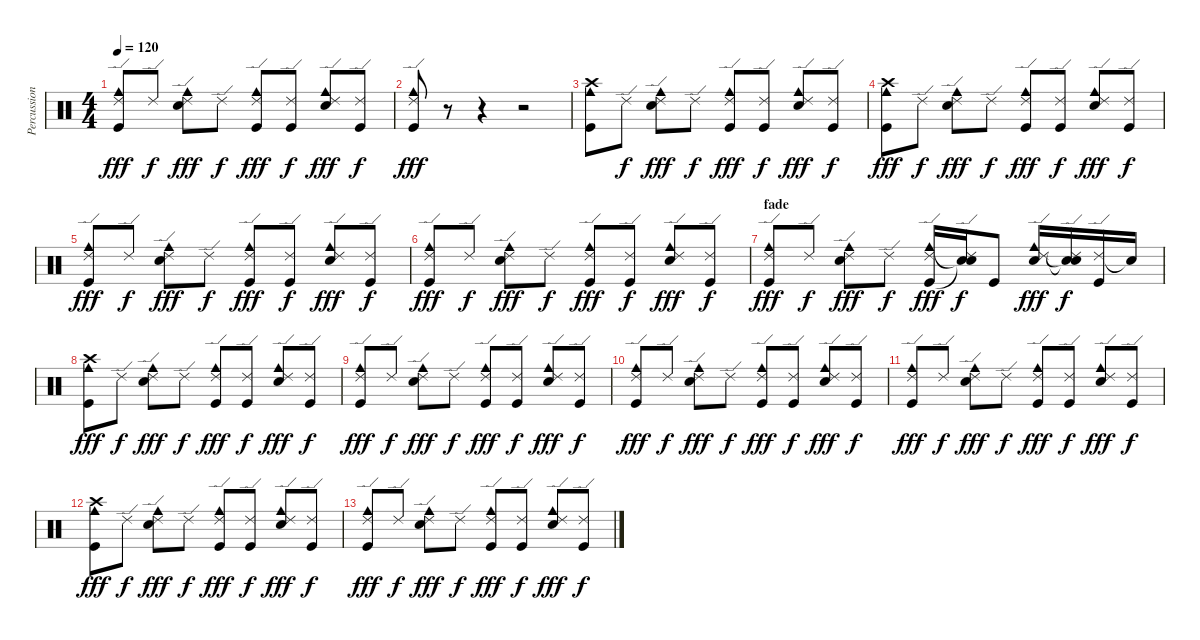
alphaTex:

\track ("Percussion" "Percussion") {instrument percussion}
\staff {score}
\articulation defaults
\ts (4 4)
\tempo 120
\clef neutral
\ks c
("Ride (edge) 2" "Cowbell medium (hit)" "Kick (hit)").8{dy fff} "Ride (edge) 2".8{dy f} ("Ride (edge) 2" "Cowbell medium (hit)" "Snare (hit) 2").8{dy fff} "Ride (edge) 2".8{dy f} ("Ride (edge) 2" "Cowbell medium (hit)" "Kick (hit)").8{dy fff} ("Ride (edge) 2" "Kick (hit)").8{dy f} ("Ride (edge) 2" "Cowbell medium (hit)" "Snare (hit) 2").8{dy fff} ("Ride (edge) 2" "Kick (hit)").8{dy f} |
("Ride (edge) 2" "Cowbell medium (hit)" "Kick (hit)").8{dy fff} r.8 r.4 r.2 |
("Crash high (hit)" "Cowbell medium (hit)" "Kick (hit)").8 "Ride (edge) 2".8{dy f} ("Ride (edge) 2" "Cowbell medium (hit)" "Snare (hit) 2").8{dy fff} "Ride (edge) 2".8{dy f} ("Ride (edge) 2" "Cowbell medium (hit)" "Kick (hit)").8{dy fff} ("Ride (edge) 2" "Kick (hit)").8{dy f} ("Ride (edge) 2" "Cowbell medium (hit)" "Snare (hit) 2").8{dy fff} ("Ride (edge) 2" "Kick (hit)").8{dy f} |
("Crash high (hit)" "Cowbell medium (hit)" "Kick (hit)").8{dy fff} "Ride (edge) 2".8{dy f} ("Ride (edge) 2" "Cowbell medium (hit)" "Snare (hit) 2").8{dy fff} "Ride (edge) 2".8{dy f} ("Ride (edge) 2" "Cowbell medium (hit)" "Kick (hit)").8{dy fff} ("Ride (edge) 2" "Kick (hit)").8{dy f} ("Ride (edge) 2" "Cowbell medium (hit)" "Snare (hit) 2").8{dy fff} ("Ride (edge) 2" "Kick (hit)").8{dy f} |
("Ride (edge) 2" "Cowbell medium (hit)" "Kick (hit)").8{dy fff} "Ride (edge) 2".8{dy f} ("Ride (edge) 2" "Cowbell medium (hit)" "Snare (hit) 2").8{dy fff} "Ride (edge) 2".8{dy f} ("Ride (edge) 2" "Cowbell medium (hit)" "Kick (hit)").8{dy fff} ("Ride (edge) 2" "Kick (hit)").8{dy f} ("Ride (edge) 2" "Cowbell medium (hit)" "Snare (hit) 2").8{dy fff} ("Ride (edge) 2" "Kick (hit)").8{dy f} |
("Ride (edge) 2" "Cowbell medium (hit)" "Kick (hit)").8{dy fff} "Ride (edge) 2".8{dy f} ("Ride (edge) 2" "Cowbell medium (hit)" "Snare (hit) 2").8{dy fff} "Ride (edge) 2".8{dy f} ("Ride (edge) 2" "Cowbell medium (hit)" "Kick (hit)").8{dy fff} ("Ride (edge) 2" "Kick (hit)").8{dy f} ("Ride (edge) 2" "Cowbell medium (hit)" "Snare (hit) 2").8{dy fff} ("Ride (edge) 2" "Kick (hit)").8{dy f} |
\section ("" "fade")
("Ride (edge) 2" "Cowbell medium (hit)" "Kick (hit)").8{dy fff volume 11} "Ride (edge) 2".8{dy f} ("Ride (edge) 2" "Cowbell medium (hit)" "Snare (hit) 2").8{dy fff} "Ride (edge) 2".8{dy f} ("Ride (edge) 2" "Cowbell medium (hit)" "Kick (hit)").16{dy fff} ("Ride (edge) 2" "Snare (hit)"{t} "Snare (hit)"{t}).16{dy f} "Kick (hit)".8 ("Ride (edge) 2" "Cowbell medium (hit)" "Snare (hit) 2").16{dy fff} ("Ride (edge) 2" "Snare (hit)"{t} "Snare (hit)"{t}).16{dy f} ("Ride (edge) 2" "Kick (hit)").16 "Snare (hit)"{t}.16 |
("Crash high (hit)" "Cowbell medium (hit)" "Kick (hit)").8{dy fff volume 9} "Ride (edge) 2".8{dy f} ("Ride (edge) 2" "Cowbell medium (hit)" "Snare (hit) 2").8{dy fff} "Ride (edge) 2".8{dy f} ("Ride (edge) 2" "Cowbell medium (hit)" "Kick (hit)").8{dy fff} ("Ride (edge) 2" "Kick (hit)").8{dy f} ("Ride (edge) 2" "Cowbell medium (hit)" "Snare (hit) 2").8{dy fff} ("Ride (edge) 2" "Kick (hit)").8{dy f} |
("Ride (edge) 2" "Cowbell medium (hit)" "Kick (hit)").8{dy fff volume 7} "Ride (edge) 2".8{dy f} ("Ride (edge) 2" "Cowbell medium (hit)" "Snare (hit) 2").8{dy fff} "Ride (edge) 2".8{dy f} ("Ride (edge) 2" "Cowbell medium (hit)" "Kick (hit)").8{dy fff} ("Ride (edge) 2" "Kick (hit)").8{dy f} ("Ride (edge) 2" "Cowbell medium (hit)" "Snare (hit) 2").8{dy fff} ("Ride (edge) 2" "Kick (hit)").8{dy f} |
("Ride (edge) 2" "Cowbell medium (hit)" "Kick (hit)").8{dy fff volume 5} "Ride (edge) 2".8{dy f} ("Ride (edge) 2" "Cowbell medium (hit)" "Snare (hit) 2").8{dy fff} "Ride (edge) 2".8{dy f} ("Ride (edge) 2" "Cowbell medium (hit)" "Kick (hit)").8{dy fff} ("Ride (edge) 2" "Kick (hit)").8{dy f} ("Ride (edge) 2" "Cowbell medium (hit)" "Snare (hit) 2").8{dy fff} ("Ride (edge) 2" "Kick (hit)").8{dy f} |
("Ride (edge) 2" "Cowbell medium (hit)" "Kick (hit)").8{dy fff volume 4} "Ride (edge) 2".8{dy f} ("Ride (edge) 2" "Cowbell medium (hit)" "Snare (hit) 2").8{dy fff} "Ride (edge) 2".8{dy f} ("Ride (edge) 2" "Cowbell medium (hit)" "Kick (hit)").8{dy fff} ("Ride (edge) 2" "Kick (hit)").8{dy f} ("Ride (edge) 2" "Cowbell medium (hit)" "Snare (hit) 2").8{dy fff} ("Ride (edge) 2" "Kick (hit)").8{dy f} |
("Crash high (hit)" "Cowbell medium (hit)" "Kick (hit)").8{dy fff volume 3} "Ride (edge) 2".8{dy f} ("Ride (edge) 2" "Cowbell medium (hit)" "Snare (hit) 2").8{dy fff} "Ride (edge) 2".8{dy f} ("Ride (edge) 2" "Cowbell medium (hit)" "Kick (hit)").8{dy fff} ("Ride (edge) 2" "Kick (hit)").8{dy f} ("Ride (edge) 2" "Cowbell medium (hit)" "Snare (hit) 2").8{dy fff} ("Ride (edge) 2" "Kick (hit)").8{dy f} |
("Ride (edge) 2" "Cowbell medium (hit)" "Kick (hit)").8{dy fff volume 1} "Ride (edge) 2".8{dy f} ("Ride (edge) 2" "Cowbell medium (hit)" "Snare (hit) 2").8{dy fff} "Ride (edge) 2".8{dy f} ("Ride (edge) 2" "Cowbell medium (hit)" "Kick (hit)").8{dy fff} ("Ride (edge) 2" "Kick (hit)").8{dy f} ("Ride (edge) 2" "Cowbell medium (hit)" "Snare (hit) 2").8{dy fff} ("Ride (edge) 2" "Kick (hit)").8{dy f}
